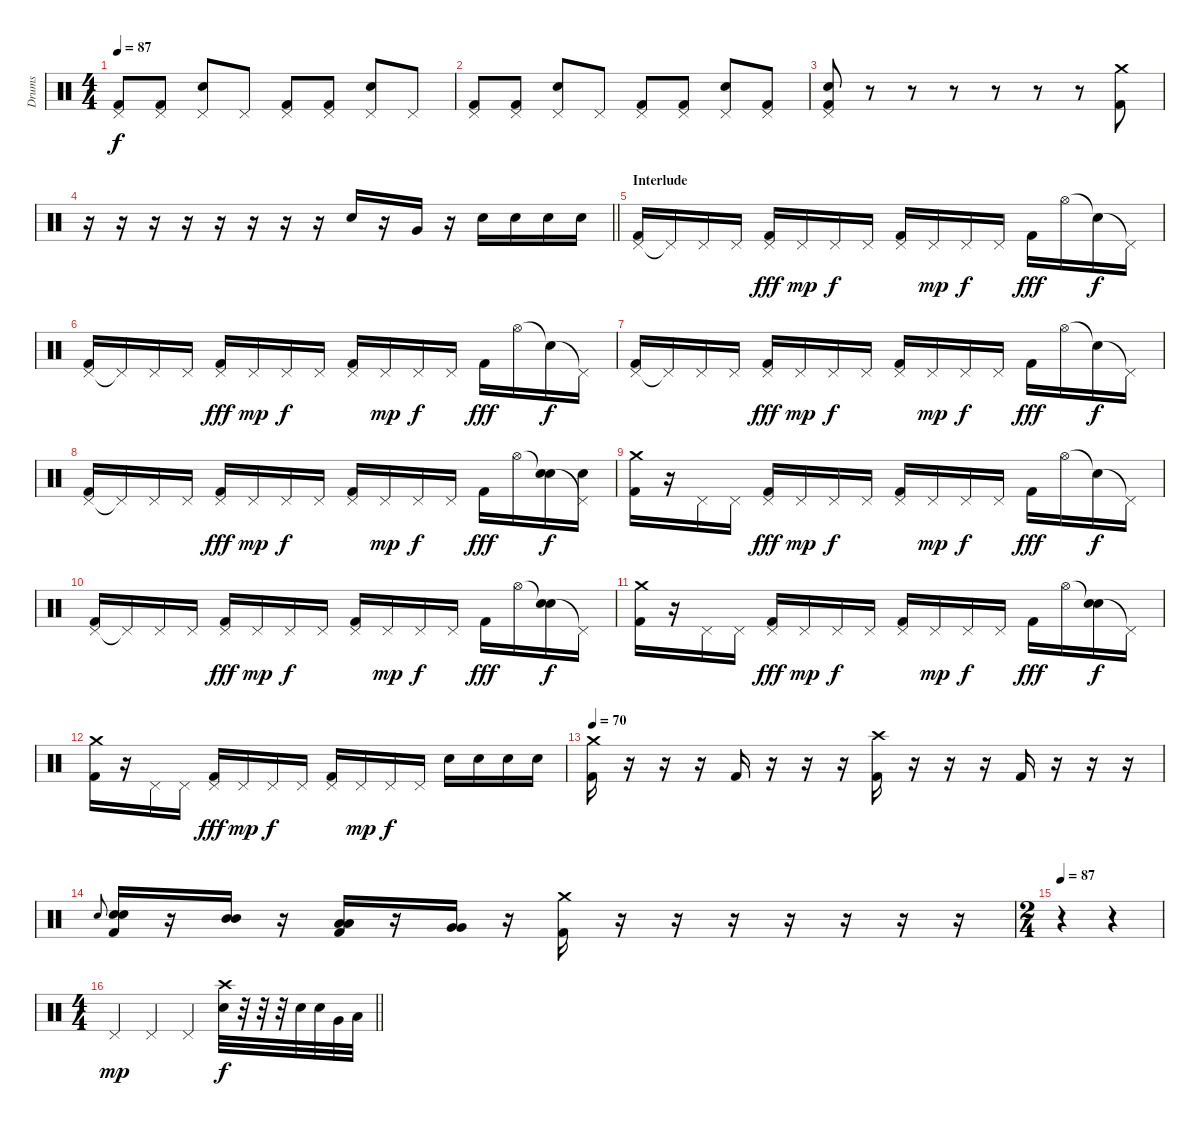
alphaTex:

\track ("Drums" "Drums") {instrument percussion}
\staff {score}
\articulation defaults
\ts (4 4)
\tempo 87
\clef neutral
\ks c
("Pedal Hi-Hat (hit)" "Kick (hit) 2").8{dy f} ("Pedal Hi-Hat (hit)" "Kick (hit) 2").8 ("Pedal Hi-Hat (hit)" "Snare (hit) 2").8 "Pedal Hi-Hat (hit)".8 ("Pedal Hi-Hat (hit)" "Kick (hit) 2").8 ("Pedal Hi-Hat (hit)" "Kick (hit) 2").8 ("Pedal Hi-Hat (hit)" "Snare (hit) 2").8 "Pedal Hi-Hat (hit)".8 |
("Pedal Hi-Hat (hit)" "Kick (hit) 2").8 ("Pedal Hi-Hat (hit)" "Kick (hit) 2").8 ("Pedal Hi-Hat (hit)" "Snare (hit) 2").8 "Pedal Hi-Hat (hit)".8 ("Pedal Hi-Hat (hit)" "Kick (hit) 2").8 ("Pedal Hi-Hat (hit)" "Kick (hit) 2").8 ("Pedal Hi-Hat (hit)" "Snare (hit) 2").8 ("Pedal Hi-Hat (hit)" "Kick (hit) 2").8 |
("Pedal Hi-Hat (hit)" "Snare (hit) 2" "Kick (hit) 2").8 r.8 r.8 r.8 r.8 r.8 r.8 ("Crash medium (hit)" "Kick (hit) 2").8 |
\barLineRight lightlight
r.16 r.16 r.16 r.16 r.16 r.16 r.16 r.16 "Snare (hit) 2".16 r.16 "Very Low Tom (hit)".16 r.16 "Snare (hit) 2".16 "Snare (hit) 2".16 "Snare (hit) 2".16 "Snare (hit) 2".16 |
\section ("" "Interlude")
("Pedal Hi-Hat (hit)" "Kick (hit) 2").16 "Pedal Hi-Hat (hit)"{t}.16 "Pedal Hi-Hat (hit)".16 "Pedal Hi-Hat (hit)".16 ("Pedal Hi-Hat (hit)" "Kick (hit) 2").16{dy fff} "Pedal Hi-Hat (hit)".16{dy mp} "Pedal Hi-Hat (hit)".16{dy f} "Pedal Hi-Hat (hit)".16 ("Pedal Hi-Hat (hit)" "Kick (hit) 2").16 "Pedal Hi-Hat (hit)".16{dy mp} "Pedal Hi-Hat (hit)".16{dy f} "Pedal Hi-Hat (hit)".16 "Kick (hit) 2".16{dy fff} "Hi-Hat (open)".16 "Snare (hit)"{t}.16{dy f} "Pedal Hi-Hat (hit)"{t}.16 |
("Pedal Hi-Hat (hit)" "Kick (hit) 2").16 "Pedal Hi-Hat (hit)"{t}.16 "Pedal Hi-Hat (hit)".16 "Pedal Hi-Hat (hit)".16 ("Pedal Hi-Hat (hit)" "Kick (hit) 2").16{dy fff} "Pedal Hi-Hat (hit)".16{dy mp} "Pedal Hi-Hat (hit)".16{dy f} "Pedal Hi-Hat (hit)".16 ("Pedal Hi-Hat (hit)" "Kick (hit) 2").16 "Pedal Hi-Hat (hit)".16{dy mp} "Pedal Hi-Hat (hit)".16{dy f} "Pedal Hi-Hat (hit)".16 "Kick (hit) 2".16{dy fff} "Hi-Hat (open)".16 "Snare (hit)"{t}.16{dy f} "Pedal Hi-Hat (hit)"{t}.16 |
("Pedal Hi-Hat (hit)" "Kick (hit) 2").16 "Pedal Hi-Hat (hit)"{t}.16 "Pedal Hi-Hat (hit)".16 "Pedal Hi-Hat (hit)".16 ("Pedal Hi-Hat (hit)" "Kick (hit) 2").16{dy fff} "Pedal Hi-Hat (hit)".16{dy mp} "Pedal Hi-Hat (hit)".16{dy f} "Pedal Hi-Hat (hit)".16 ("Pedal Hi-Hat (hit)" "Kick (hit) 2").16 "Pedal Hi-Hat (hit)".16{dy mp} "Pedal Hi-Hat (hit)".16{dy f} "Pedal Hi-Hat (hit)".16 "Kick (hit) 2".16{dy fff} "Hi-Hat (open)".16 "Snare (hit)"{t}.16{dy f} "Pedal Hi-Hat (hit)"{t}.16 |
("Pedal Hi-Hat (hit)" "Kick (hit) 2").16 "Pedal Hi-Hat (hit)"{t}.16 "Pedal Hi-Hat (hit)".16 "Pedal Hi-Hat (hit)".16 ("Pedal Hi-Hat (hit)" "Kick (hit) 2").16{dy fff} "Pedal Hi-Hat (hit)".16{dy mp} "Pedal Hi-Hat (hit)".16{dy f} "Pedal Hi-Hat (hit)".16 ("Pedal Hi-Hat (hit)" "Kick (hit) 2").16 "Pedal Hi-Hat (hit)".16{dy mp} "Pedal Hi-Hat (hit)".16{dy f} "Pedal Hi-Hat (hit)".16 "Kick (hit) 2".16{dy fff} "Hi-Hat (open)".16 ("Snare (hit)"{t} "Snare (hit) 2").16{dy f} ("Pedal Hi-Hat (hit)"{t} "Snare (hit) 2").16 |
("Crash medium (hit)" "Kick (hit) 2").16 r.16 "Pedal Hi-Hat (hit)".16 "Pedal Hi-Hat (hit)".16 ("Pedal Hi-Hat (hit)" "Kick (hit) 2").16{dy fff} "Pedal Hi-Hat (hit)".16{dy mp} "Pedal Hi-Hat (hit)".16{dy f} "Pedal Hi-Hat (hit)".16 ("Pedal Hi-Hat (hit)" "Kick (hit) 2").16 "Pedal Hi-Hat (hit)".16{dy mp} "Pedal Hi-Hat (hit)".16{dy f} "Pedal Hi-Hat (hit)".16 "Kick (hit) 2".16{dy fff} "Hi-Hat (open)".16 "Snare (hit)"{t}.16{dy f} "Pedal Hi-Hat (hit)"{t}.16 |
("Pedal Hi-Hat (hit)" "Kick (hit) 2").16 "Pedal Hi-Hat (hit)"{t}.16 "Pedal Hi-Hat (hit)".16 "Pedal Hi-Hat (hit)".16 ("Pedal Hi-Hat (hit)" "Kick (hit) 2").16{dy fff} "Pedal Hi-Hat (hit)".16{dy mp} "Pedal Hi-Hat (hit)".16{dy f} "Pedal Hi-Hat (hit)".16 ("Pedal Hi-Hat (hit)" "Kick (hit) 2").16 "Pedal Hi-Hat (hit)".16{dy mp} "Pedal Hi-Hat (hit)".16{dy f} "Pedal Hi-Hat (hit)".16 "Kick (hit) 2".16{dy fff} "Hi-Hat (open)".16 ("Snare (hit)"{t} "Snare (hit) 2").16{dy f} "Pedal Hi-Hat (hit)"{t}.16 |
("Crash medium (hit)" "Kick (hit) 2").16 r.16 "Pedal Hi-Hat (hit)".16 "Pedal Hi-Hat (hit)".16 ("Pedal Hi-Hat (hit)" "Kick (hit) 2").16{dy fff} "Pedal Hi-Hat (hit)".16{dy mp} "Pedal Hi-Hat (hit)".16{dy f} "Pedal Hi-Hat (hit)".16 ("Pedal Hi-Hat (hit)" "Kick (hit) 2").16 "Pedal Hi-Hat (hit)".16{dy mp} "Pedal Hi-Hat (hit)".16{dy f} "Pedal Hi-Hat (hit)".16 "Kick (hit) 2".16{dy fff} "Hi-Hat (open)".16 ("Snare (hit)"{t} "Snare (hit) 2").16{dy f} "Pedal Hi-Hat (hit)"{t}.16 |
("Crash medium (hit)" "Kick (hit) 2").16 r.16 "Pedal Hi-Hat (hit)".16 "Pedal Hi-Hat (hit)".16 ("Pedal Hi-Hat (hit)" "Kick (hit) 2").16{dy fff} "Pedal Hi-Hat (hit)".16{dy mp} "Pedal Hi-Hat (hit)".16{dy f} "Pedal Hi-Hat (hit)".16 ("Pedal Hi-Hat (hit)" "Kick (hit) 2").16 "Pedal Hi-Hat (hit)".16{dy mp} "Pedal Hi-Hat (hit)".16{dy f} "Pedal Hi-Hat (hit)".16 "Snare (hit) 2".16 "Snare (hit) 2".16 "Snare (hit) 2".16 "Snare (hit) 2".16 |
\tempo 70
("Crash medium (hit)" "Kick (hit) 2").16 r.16 r.16 r.16 "Kick (hit) 2".16 r.16 r.16 r.16 ("Crash high (hit)" "Kick (hit) 2").16 r.16 r.16 r.16 "Kick (hit) 2".16 r.16 r.16 r.16 |
"Snare (hit) 2".8{gr onbeat} ("Snare (hit) 2" "Snare (hit) 2" "Kick (hit) 2").16 r.16 ("Mid Tom (hit)" "Mid Tom (hit)").16 r.16 ("Low Tom (hit)" "Low Tom (hit)" "Kick (hit) 2").16 r.16 ("Very Low Tom (hit)" "Very Low Tom (hit)").16 r.16 ("Crash medium (hit)" "Kick (hit) 2").16 r.16 r.16 r.16 r.16 r.16 r.16 r.16 |
\ts (2 4)
\tempo 87
r.4 r.4 |
\ts (4 4)
\barLineRight lightlight "Pedal Hi-Hat (hit)".4{dy mp} "Pedal Hi-Hat (hit)".4 "Pedal Hi-Hat (hit)".4
("Crash high (hit)" "Snare (hit) 2").32{dy f} r.32 r.32 r.32 "Snare (hit) 2".32 "Snare (hit) 2".32 "Very Low Tom (hit)".32 "Low Floor Tom (hit)".32
